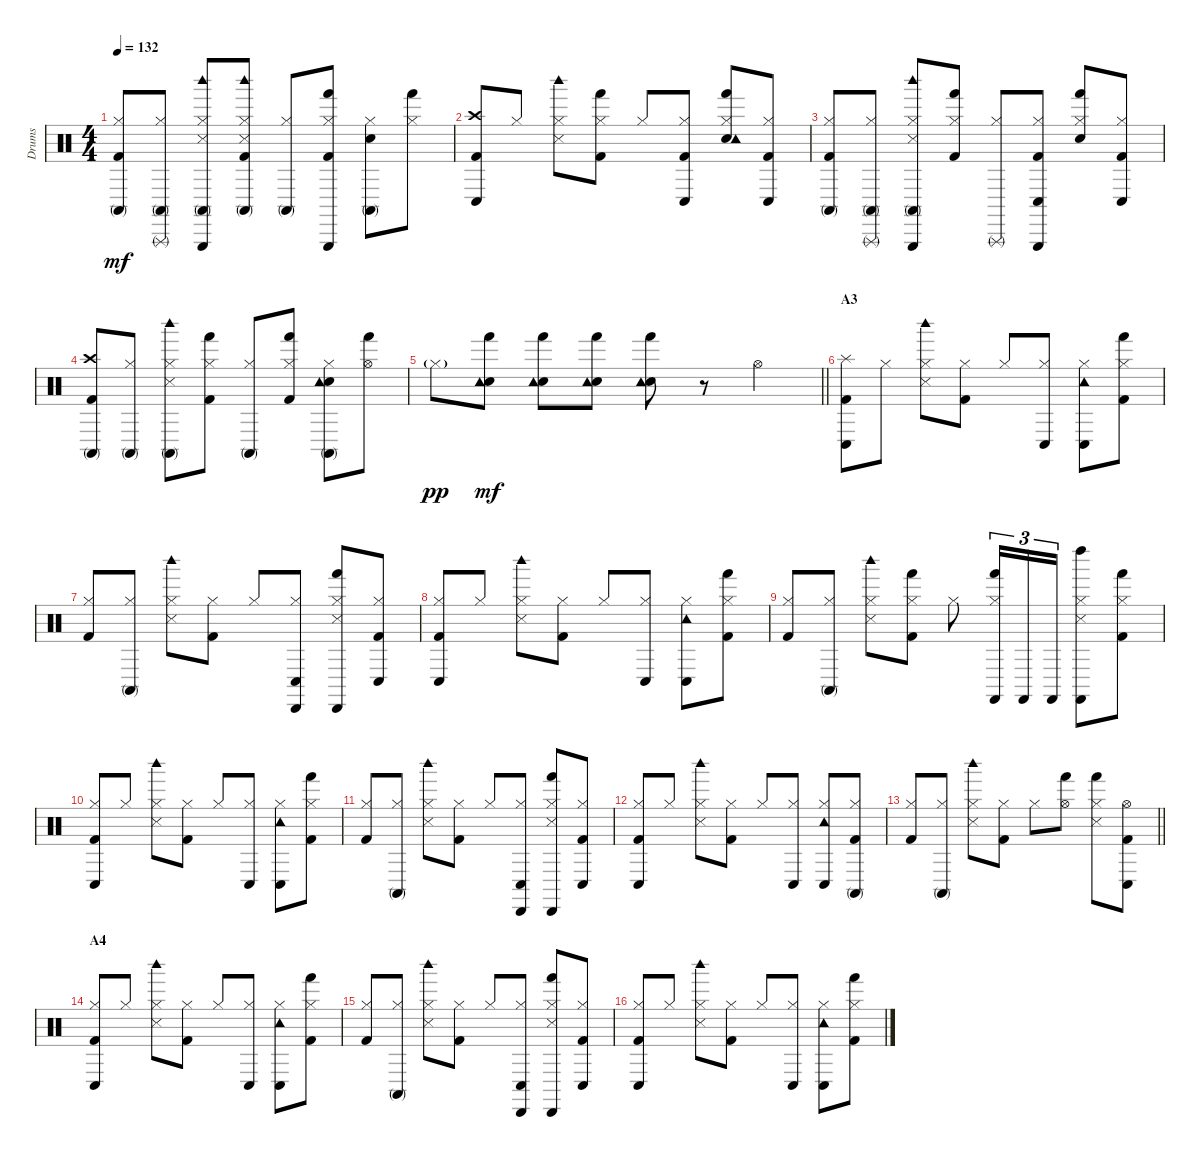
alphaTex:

\track ("Drums" "Drums") {instrument percussion}
\staff {score}
\articulation defaults
\ts (4 4)
\tempo 132
\clef neutral
\ks c
("Hi-Hat (closed)" "Kick (hit) 2" "Conga high (mute)").8{dy mf} ("Hi-Hat (closed)" "Triangle (rnute)" "Conga high (mute)").8 ("Hi-Hat (closed)" "Snare (side stick) 3" "Woodblock high (hit)" "Triangle (hit)" "Conga high (mute)").8 ("Hi-Hat (closed)" "Snare (side stick) 3" "Woodblock high (hit)" "Kick (hit) 2" "Conga high (mute)").8 ("Hi-Hat (closed)" "Conga high (mute)").8 ("Hi-Hat (closed)" "Kick (hit) 2" "Triangle (hit)" "Hand (hit)").8 ("Hi-Hat (closed)" "Electric Snare (hit)" "Conga high (mute)").8 ("Hi-Hat (closed)" "Hand (hit)").8 |
("Crash high (hit)" "Kick (hit) 2" "Conga low (hit)").8 "Hi-Hat (closed)".8 ("Hi-Hat (closed)" "Snare (side stick) 3" "Woodblock high (hit)").8 ("Hi-Hat (closed)" "Kick (hit) 2" "Hand (hit)").8 "Hi-Hat (closed)".8 ("Hi-Hat (closed)" "Kick (hit) 2" "Conga low (hit)").8 ("Hi-Hat (closed)" "Electric Snare (hit)" "Tambourine (hit)" "Hand (hit)").8 ("Hi-Hat (closed)" "Kick (hit) 2" "Conga low (hit)").8 |
("Hi-Hat (closed)" "Kick (hit) 2" "Conga high (mute)").8 ("Hi-Hat (closed)" "Triangle (rnute)" "Conga high (mute)").8 ("Hi-Hat (closed)" "Snare (side stick) 3" "Woodblock high (hit)" "Triangle (hit)" "Conga high (mute)").8 ("Hi-Hat (closed)" "Kick (hit) 2" "Hand (hit)").8 ("Hi-Hat (closed)" "Triangle (rnute)").8 ("Hi-Hat (closed)" "Kick (hit) 2" "Triangle (hit)" "Conga low (hit)").8 ("Hi-Hat (closed)" "Electric Snare (hit)" "Hand (hit)").8 ("Hi-Hat (closed)" "Kick (hit) 2" "Conga low (hit)").8 |
("Crash high (hit)" "Kick (hit) 2" "Conga high (mute)").8 ("Hi-Hat (closed)" "Conga high (mute)").8 ("Hi-Hat (closed)" "Snare (side stick) 3" "Woodblock high (hit)" "Conga high (mute)").8 ("Hi-Hat (closed)" "Kick (hit) 2" "Hand (hit)").8 ("Hi-Hat (closed)" "Conga high (mute)").8 ("Hi-Hat (closed)" "Kick (hit) 2" "Hand (hit)").8 ("Hi-Hat (closed)" "Electric Snare (hit)" "Tambourine (hit)" "Conga high (mute)").8 ("Hi-Hat (open)" "Hand (hit)").8 |
\barLineRight lightlight "Hi-Hat (closed)"{g}.8{dy pp}
("Electric Snare (hit)" "Tambourine (hit)" "Hand (hit)").8{dy mf} ("Electric Snare (hit)" "Tambourine (hit)" "Hand (hit)").8 ("Electric Snare (hit)" "Tambourine (hit)" "Hand (hit)").8 ("Electric Snare (hit)" "Tambourine (hit)" "Hand (hit)").8 r.8 "Hi-Hat (open)".4 |
\section ("" "A3")
("Splash (hit)" "Kick (hit) 2" "Conga low (hit)").8 "Hi-Hat (closed)".8 ("Hi-Hat (closed)" "Snare (side stick) 3" "Woodblock high (hit)").8 ("Hi-Hat (closed)" "Kick (hit) 2").8 "Hi-Hat (closed)".8 ("Hi-Hat (closed)" "Conga low (hit)").8 ("Hi-Hat (closed)" "Tambourine (hit)" "Conga low (hit)").8 ("Hi-Hat (closed)" "Kick (hit) 2" "Hand (hit)").8 |
("Hi-Hat (closed)" "Kick (hit) 2").8 ("Hi-Hat (closed)" "Conga high (mute)").8 ("Hi-Hat (closed)" "Snare (side stick) 3" "Woodblock high (hit)").8 ("Hi-Hat (closed)" "Kick (hit) 2").8 "Hi-Hat (closed)".8 ("Hi-Hat (closed)" "Cabasa (hit)" "Conga low (hit)").8 ("Hi-Hat (closed)" "Snare (side stick) 3" "Cabasa (hit)" "Hand (hit)").8 ("Hi-Hat (closed)" "Kick (hit) 2" "Conga low (hit)").8 |
("Hi-Hat (closed)" "Kick (hit) 2" "Conga low (hit)").8 "Hi-Hat (closed)".8 ("Hi-Hat (closed)" "Snare (side stick) 3" "Woodblock high (hit)").8 ("Hi-Hat (closed)" "Kick (hit) 2").8 "Hi-Hat (closed)".8 ("Hi-Hat (closed)" "Conga low (hit)").8 ("Hi-Hat (closed)" "Tambourine (hit)" "Conga low (hit)").8 ("Hi-Hat (closed)" "Kick (hit) 2" "Hand (hit)").8 |
("Hi-Hat (closed)" "Kick (hit) 2").8 ("Hi-Hat (closed)" "Conga high (mute)").8 ("Hi-Hat (closed)" "Snare (side stick) 3" "Woodblock high (hit)").8 ("Hi-Hat (closed)" "Kick (hit) 2" "Hand (hit)").8 "Hi-Hat (closed)".8 ("Hi-Hat (closed)" "Castanets (hit)" "Hand (hit)").16{tu (3 2)} "Castanets (hit)".16{tu (3 2)} "Castanets (hit)".16{tu (3 2)} ("Hi-Hat (closed)" "Snare (side stick) 3" "Castanets (hit)" "Left Maraca (hit)").8 ("Hi-Hat (closed)" "Kick (hit) 2" "Hand (hit)").8 |
("Hi-Hat (closed)" "Kick (hit) 2" "Conga low (hit)").8 "Hi-Hat (closed)".8 ("Hi-Hat (closed)" "Snare (side stick) 3" "Woodblock high (hit)").8 ("Hi-Hat (closed)" "Kick (hit) 2").8 "Hi-Hat (closed)".8 ("Hi-Hat (closed)" "Conga low (hit)").8 ("Hi-Hat (closed)" "Tambourine (hit)" "Conga low (hit)").8 ("Hi-Hat (closed)" "Kick (hit) 2" "Hand (hit)").8 |
("Hi-Hat (closed)" "Kick (hit) 2").8 ("Hi-Hat (closed)" "Conga high (mute)").8 ("Hi-Hat (closed)" "Snare (side stick) 3" "Woodblock high (hit)").8 ("Hi-Hat (closed)" "Kick (hit) 2").8 "Hi-Hat (closed)".8 ("Hi-Hat (closed)" "Cabasa (hit)" "Conga low (hit)").8 ("Hi-Hat (closed)" "Snare (side stick) 3" "Cabasa (hit)" "Hand (hit)").8 ("Hi-Hat (closed)" "Kick (hit) 2" "Conga low (hit)").8 |
("Hi-Hat (closed)" "Kick (hit) 2" "Conga low (hit)").8 "Hi-Hat (closed)".8 ("Hi-Hat (closed)" "Snare (side stick) 3" "Woodblock high (hit)").8 ("Hi-Hat (closed)" "Kick (hit) 2").8 "Hi-Hat (closed)".8 ("Hi-Hat (closed)" "Conga low (hit)").8 ("Hi-Hat (closed)" "Tambourine (hit)" "Conga low (hit)").8 ("Hi-Hat (closed)" "Kick (hit) 2" "Conga high (mute)").8 |
\barLineRight lightlight
("Hi-Hat (closed)" "Kick (hit) 2").8 ("Hi-Hat (closed)" "Conga high (mute)").8 ("Hi-Hat (closed)" "Snare (side stick) 3" "Woodblock high (hit)").8 ("Hi-Hat (closed)" "Kick (hit) 2").8 "Hi-Hat (closed)".8 ("Hi-Hat (open)" "Hand (hit)").8 ("Hi-Hat (closed)" "Snare (side stick) 3" "Hand (hit)").8 ("Hi-Hat (open)" "Kick (hit) 2" "Conga low (hit)").8 |
\section ("" "A4")
("Hi-Hat (closed)" "Kick (hit) 2" "Conga low (hit)").8 "Hi-Hat (closed)".8 ("Hi-Hat (closed)" "Snare (side stick) 3" "Woodblock high (hit)").8 ("Hi-Hat (closed)" "Kick (hit) 2").8 "Hi-Hat (closed)".8 ("Hi-Hat (closed)" "Conga low (hit)").8 ("Hi-Hat (closed)" "Tambourine (hit)" "Conga low (hit)").8 ("Hi-Hat (closed)" "Kick (hit) 2" "Hand (hit)").8 |
("Hi-Hat (closed)" "Kick (hit) 2").8 ("Hi-Hat (closed)" "Conga high (mute)").8 ("Hi-Hat (closed)" "Snare (side stick) 3" "Woodblock high (hit)").8 ("Hi-Hat (closed)" "Kick (hit) 2").8 "Hi-Hat (closed)".8 ("Hi-Hat (closed)" "Cabasa (hit)" "Conga low (hit)").8 ("Hi-Hat (closed)" "Snare (side stick) 3" "Cabasa (hit)" "Hand (hit)").8 ("Hi-Hat (closed)" "Kick (hit) 2" "Conga low (hit)").8 |
("Hi-Hat (closed)" "Kick (hit) 2" "Conga low (hit)").8 "Hi-Hat (closed)".8 ("Hi-Hat (closed)" "Snare (side stick) 3" "Woodblock high (hit)").8 ("Hi-Hat (closed)" "Kick (hit) 2").8 "Hi-Hat (closed)".8 ("Hi-Hat (closed)" "Conga low (hit)").8 ("Hi-Hat (closed)" "Tambourine (hit)" "Conga low (hit)").8 ("Hi-Hat (closed)" "Kick (hit) 2" "Hand (hit)").8
